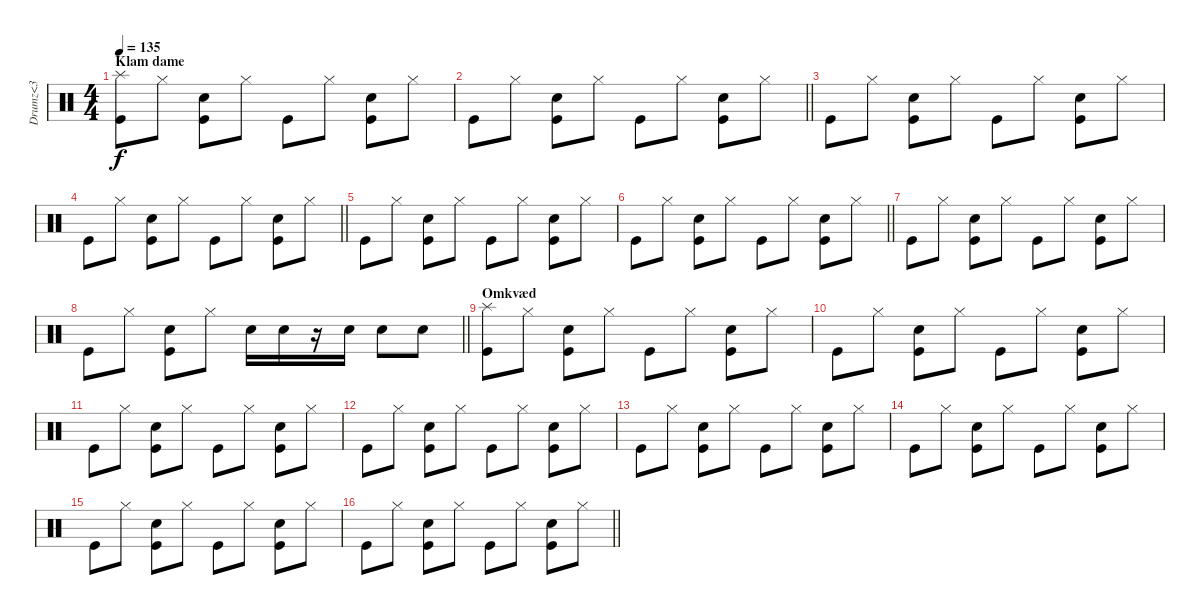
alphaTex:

\track ("Drumz<3" "Drumz<3") {instrument percussion}
\staff {score}
\articulation defaults
\ts (4 4)
\section ("" "Klam dame")
\tempo 135
\clef neutral
\ks c
("Splash (hit)" "Kick (hit)").8{dy f} "Hi-Hat (closed)".8 ("Kick (hit)" "Snare (hit) 2").8 "Hi-Hat (closed)".8 "Kick (hit)".8 "Hi-Hat (closed)".8 ("Kick (hit)" "Snare (hit) 2").8 "Hi-Hat (closed)".8 |
\barLineRight lightlight "Kick (hit)".8 "Hi-Hat (closed)".8
("Kick (hit)" "Snare (hit) 2").8 "Hi-Hat (closed)".8 "Kick (hit)".8 "Hi-Hat (closed)".8 ("Kick (hit)" "Snare (hit) 2").8 "Hi-Hat (closed)".8 |
"Kick (hit)".8 "Hi-Hat (closed)".8 ("Kick (hit)" "Snare (hit) 2").8 "Hi-Hat (closed)".8 "Kick (hit)".8 "Hi-Hat (closed)".8 ("Kick (hit)" "Snare (hit) 2").8 "Hi-Hat (closed)".8 |
\barLineRight lightlight "Kick (hit)".8 "Hi-Hat (closed)".8
("Kick (hit)" "Snare (hit) 2").8 "Hi-Hat (closed)".8 "Kick (hit)".8 "Hi-Hat (closed)".8 ("Kick (hit)" "Snare (hit) 2").8 "Hi-Hat (closed)".8 |
"Kick (hit)".8 "Hi-Hat (closed)".8 ("Kick (hit)" "Snare (hit) 2").8 "Hi-Hat (closed)".8 "Kick (hit)".8 "Hi-Hat (closed)".8 ("Kick (hit)" "Snare (hit) 2").8 "Hi-Hat (closed)".8 |
\barLineRight lightlight "Kick (hit)".8 "Hi-Hat (closed)".8
("Kick (hit)" "Snare (hit) 2").8 "Hi-Hat (closed)".8 "Kick (hit)".8 "Hi-Hat (closed)".8 ("Kick (hit)" "Snare (hit) 2").8 "Hi-Hat (closed)".8 |
"Kick (hit)".8 "Hi-Hat (closed)".8 ("Kick (hit)" "Snare (hit) 2").8 "Hi-Hat (closed)".8 "Kick (hit)".8 "Hi-Hat (closed)".8 ("Kick (hit)" "Snare (hit) 2").8 "Hi-Hat (closed)".8 |
\barLineRight lightlight "Kick (hit)".8 "Hi-Hat (closed)".8
("Kick (hit)" "Snare (hit) 2").8 "Hi-Hat (closed)".8 "Snare (hit) 2".16 "Snare (hit) 2".16 r.16 "Snare (hit) 2".16 "Snare (hit) 2".8 "Snare (hit) 2".8 |
\section ("" "Omkvæd")
("Splash (hit)" "Kick (hit)").8 "Hi-Hat (closed)".8 ("Kick (hit)" "Snare (hit) 2").8 "Hi-Hat (closed)".8 "Kick (hit)".8 "Hi-Hat (closed)".8 ("Kick (hit)" "Snare (hit) 2").8 "Hi-Hat (closed)".8 |
"Kick (hit)".8 "Hi-Hat (closed)".8 ("Kick (hit)" "Snare (hit) 2").8 "Hi-Hat (closed)".8 "Kick (hit)".8 "Hi-Hat (closed)".8 ("Kick (hit)" "Snare (hit) 2").8 "Hi-Hat (closed)".8 |
"Kick (hit)".8 "Hi-Hat (closed)".8 ("Kick (hit)" "Snare (hit) 2").8 "Hi-Hat (closed)".8 "Kick (hit)".8 "Hi-Hat (closed)".8 ("Kick (hit)" "Snare (hit) 2").8 "Hi-Hat (closed)".8 |
"Kick (hit)".8 "Hi-Hat (closed)".8 ("Kick (hit)" "Snare (hit) 2").8 "Hi-Hat (closed)".8 "Kick (hit)".8 "Hi-Hat (closed)".8 ("Kick (hit)" "Snare (hit) 2").8 "Hi-Hat (closed)".8 |
"Kick (hit)".8 "Hi-Hat (closed)".8 ("Kick (hit)" "Snare (hit) 2").8 "Hi-Hat (closed)".8 "Kick (hit)".8 "Hi-Hat (closed)".8 ("Kick (hit)" "Snare (hit) 2").8 "Hi-Hat (closed)".8 |
"Kick (hit)".8 "Hi-Hat (closed)".8 ("Kick (hit)" "Snare (hit) 2").8 "Hi-Hat (closed)".8 "Kick (hit)".8 "Hi-Hat (closed)".8 ("Kick (hit)" "Snare (hit) 2").8 "Hi-Hat (closed)".8 |
"Kick (hit)".8 "Hi-Hat (closed)".8 ("Kick (hit)" "Snare (hit) 2").8 "Hi-Hat (closed)".8 "Kick (hit)".8 "Hi-Hat (closed)".8 ("Kick (hit)" "Snare (hit) 2").8 "Hi-Hat (closed)".8 |
\barLineRight lightlight "Kick (hit)".8 "Hi-Hat (closed)".8
("Kick (hit)" "Snare (hit) 2").8 "Hi-Hat (closed)".8 "Kick (hit)".8 "Hi-Hat (closed)".8 ("Kick (hit)" "Snare (hit) 2").8 "Hi-Hat (closed)".8
